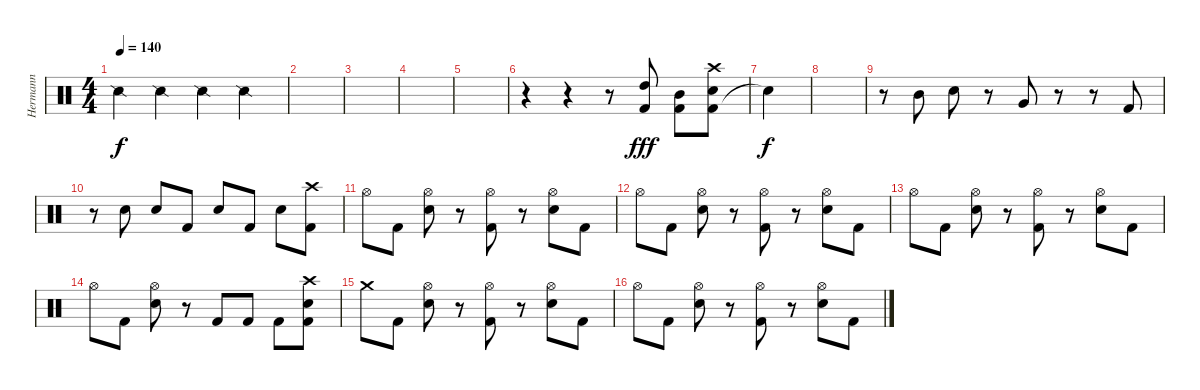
\track ("Hermann" "Hermann") {instrument percussion}
\staff {score}
\articulation defaults
\ts (4 4)
\tempo 140
\clef neutral
\ks c "Snare (side stick) 2".4{dy f} "Snare (side stick) 2".4 "Snare (side stick) 2".4 "Snare (side stick) 2".4
|
|
|
|
|
r.4 r.4 r.8 ("Kick (hit) 2" "High Tom (hit)").8{dy fff} ("Kick (hit) 2" "Mid Tom (hit)").8 ("Kick (hit) 2" "Electric Snare (hit)" "Crash high (hit)").8 |
"Snare (hit)"{t}.4{dy f} |
|
r.8 "Mid Tom (hit)".8 "Electric Snare (hit)".8 r.8 "Very Low Tom (hit)".8 r.8 r.8 "Kick (hit) 2".8 |
r.8 "Electric Snare (hit)".8 "Electric Snare (hit)".8 "Kick (hit) 2".8 "Electric Snare (hit)".8 "Kick (hit) 2".8 "Electric Snare (hit)".8 ("Crash high (hit)" "Kick (hit) 2").8 |
"Hi-Hat (open)".8 "Kick (hit) 2".8 ("Hi-Hat (open)" "Electric Snare (hit)").8 r.8 ("Hi-Hat (open)" "Kick (hit) 2").8 r.8 ("Hi-Hat (open)" "Electric Snare (hit)").8 "Kick (hit) 2".8 |
"Hi-Hat (open)".8 "Kick (hit) 2".8 ("Hi-Hat (open)" "Electric Snare (hit)").8 r.8 ("Hi-Hat (open)" "Kick (hit) 2").8 r.8 ("Hi-Hat (open)" "Electric Snare (hit)").8 "Kick (hit) 2".8 |
"Hi-Hat (open)".8 "Kick (hit) 2".8 ("Hi-Hat (open)" "Electric Snare (hit)").8 r.8 ("Hi-Hat (open)" "Kick (hit) 2").8 r.8 ("Hi-Hat (open)" "Electric Snare (hit)").8 "Kick (hit) 2".8 |
"Hi-Hat (open)".8 "Kick (hit) 2".8 ("Hi-Hat (open)" "Electric Snare (hit)").8 r.8 "Kick (hit) 2".8 "Kick (hit) 2".8 "Kick (hit) 2".8 ("Crash high (hit)" "Kick (hit) 2" "Electric Snare (hit)").8 |
"Crash medium (hit)".8 "Kick (hit) 2".8 ("Hi-Hat (open)" "Electric Snare (hit)").8 r.8 ("Hi-Hat (open)" "Kick (hit) 2").8 r.8 ("Hi-Hat (open)" "Electric Snare (hit)").8 "Kick (hit) 2".8 |
"Hi-Hat (open)".8 "Kick (hit) 2".8 ("Hi-Hat (open)" "Electric Snare (hit)").8 r.8 ("Hi-Hat (open)" "Kick (hit) 2").8 r.8 ("Hi-Hat (open)" "Electric Snare (hit)").8 "Kick (hit) 2".8
